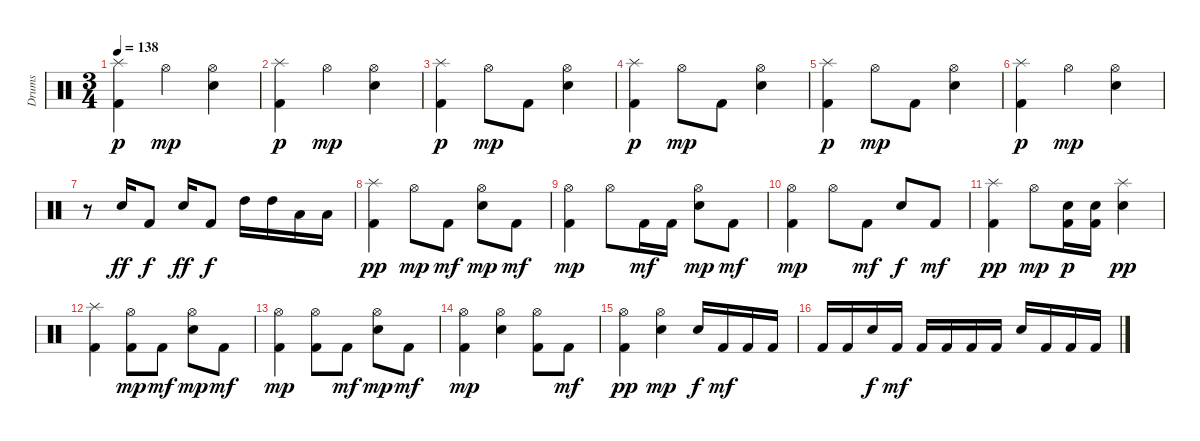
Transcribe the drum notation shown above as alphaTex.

\track ("Drums" "Drums") {instrument percussion}
\staff {score}
\articulation defaults
\ts (3 4)
\tempo 138
\clef neutral
\ks c
("Kick (hit) 2" "Splash (hit)").4{dy p} "Hi-Hat (open)".4{dy mp} ("Electric Snare (hit)" "Hi-Hat (open)").4 |
("Kick (hit) 2" "Splash (hit)").4{dy p} "Hi-Hat (open)".4{dy mp} ("Electric Snare (hit)" "Hi-Hat (open)").4 |
("Kick (hit) 2" "Splash (hit)").4{dy p} "Hi-Hat (open)".8{dy mp} "Kick (hit) 2".8 ("Electric Snare (hit)" "Hi-Hat (open)").4 |
("Kick (hit) 2" "Splash (hit)").4{dy p} "Hi-Hat (open)".8{dy mp} "Kick (hit) 2".8 ("Electric Snare (hit)" "Hi-Hat (open)").4 |
("Kick (hit) 2" "Splash (hit)").4{dy p} "Hi-Hat (open)".8{dy mp} "Kick (hit) 2".8 ("Electric Snare (hit)" "Hi-Hat (open)").4 |
("Kick (hit) 2" "Splash (hit)").4{dy p} "Hi-Hat (open)".4{dy mp} ("Electric Snare (hit)" "Hi-Hat (open)").4 |
r.8 "Electric Snare (hit)".16{dy ff} "Kick (hit) 2".8{dy f} "Electric Snare (hit)".16{dy ff} "Kick (hit) 2".8{dy f} "High Tom (hit)".16 "High Tom (hit)".16 "Low Tom (hit)".16 "Low Tom (hit)".16 |
("Kick (hit) 2" "Splash (hit)").4{dy pp} "Hi-Hat (open)".8{dy mp} "Kick (hit) 2".8{dy mf} ("Electric Snare (hit)" "Hi-Hat (open)").8{dy mp} "Kick (hit) 2".8{dy mf} |
("Kick (hit) 2" "Hi-Hat (open)").4{dy mp} "Hi-Hat (open)".8 "Kick (hit) 2".16{dy mf} "Kick (hit) 2".16 ("Electric Snare (hit)" "Hi-Hat (open)").8{dy mp} "Kick (hit) 2".8{dy mf} |
("Kick (hit) 2" "Hi-Hat (open)").4{dy mp} "Hi-Hat (open)".8 "Kick (hit) 2".8{dy mf} "Electric Snare (hit)".8{dy f} "Kick (hit) 2".8{dy mf} |
("Kick (hit) 2" "Splash (hit)").4{dy pp} "Hi-Hat (open)".8{dy mp} ("Kick (hit) 2" "Electric Snare (hit)").16{dy p} ("Kick (hit) 2" "Electric Snare (hit)").16 ("Electric Snare (hit)" "Splash (hit)").4{dy pp} |
("Kick (hit) 2" "Splash (hit)").4 ("Kick (hit) 2" "Hi-Hat (open)").8{dy mp} "Kick (hit) 2".8{dy mf} ("Electric Snare (hit)" "Hi-Hat (open)").8{dy mp} "Kick (hit) 2".8{dy mf} |
("Kick (hit) 2" "Hi-Hat (open)").4{dy mp} ("Kick (hit) 2" "Hi-Hat (open)").8 "Kick (hit) 2".8{dy mf} ("Electric Snare (hit)" "Hi-Hat (open)").8{dy mp} "Kick (hit) 2".8{dy mf} |
("Kick (hit) 2" "Hi-Hat (open)").4{dy mp} ("Electric Snare (hit)" "Hi-Hat (open)").4 ("Kick (hit) 2" "Hi-Hat (open)").8 "Kick (hit) 2".8{dy mf} |
("Kick (hit) 2" "Hi-Hat (open)").4{dy pp} ("Electric Snare (hit)" "Hi-Hat (open)").4{dy mp} "Electric Snare (hit)".16{dy f} "Kick (hit) 2".16{dy mf} "Kick (hit) 2".16 "Kick (hit) 2".16 |
"Kick (hit) 2".16 "Kick (hit) 2".16 "Electric Snare (hit)".16{dy f} "Kick (hit) 2".16{dy mf} "Kick (hit) 2".16 "Kick (hit) 2".16 "Kick (hit) 2".16 "Kick (hit) 2".16 "Electric Snare (hit)".16 "Kick (hit) 2".16 "Kick (hit) 2".16 "Kick (hit) 2".16
